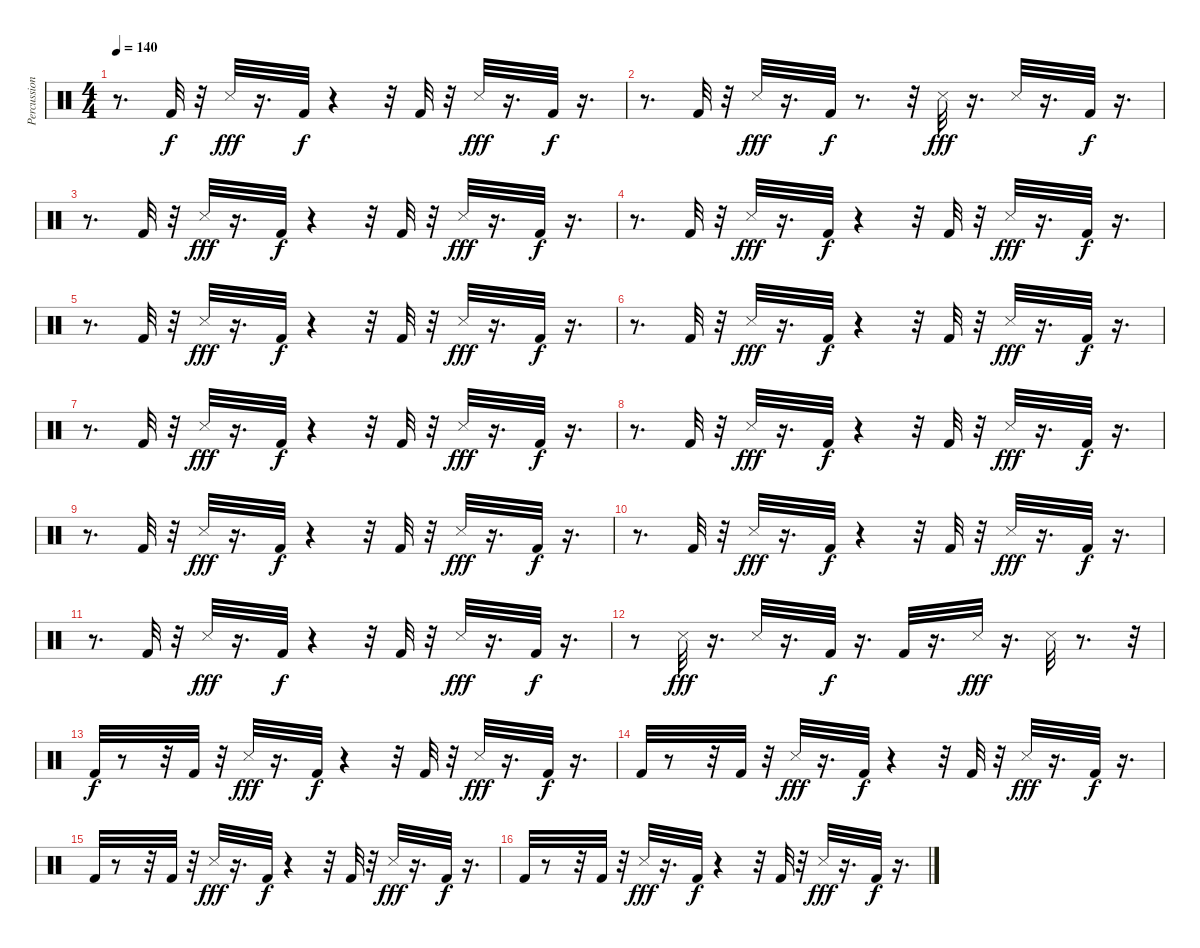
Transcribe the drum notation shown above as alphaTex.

\track ("Percussion" "Percussion") {instrument percussion}
\staff {score}
\articulation defaults
\ts (4 4)
\tempo 140
\clef neutral
\ks c
r.8{d dy f} "Kick (hit) 2".32 r.32 "Snare (side stick) 3".32{dy fff} r.16{d} "Kick (hit) 2".32{dy f} r.4 r.32 "Kick (hit) 2".32 r.32 "Snare (side stick) 3".32{dy fff} r.16{d} "Kick (hit) 2".32{dy f} r.16{d} |
r.8{d} "Kick (hit) 2".32 r.32 "Snare (side stick) 3".32{dy fff} r.16{d} "Kick (hit) 2".32{dy f} r.8{d} r.32 "Snare (side stick) 3".32{dy fff} r.16{d} "Snare (side stick) 3".32 r.16{d} "Kick (hit) 2".32{dy f} r.16{d} |
r.8{d} "Kick (hit) 2".32 r.32 "Snare (side stick) 3".32{dy fff} r.16{d} "Kick (hit) 2".32{dy f} r.4 r.32 "Kick (hit) 2".32 r.32 "Snare (side stick) 3".32{dy fff} r.16{d} "Kick (hit) 2".32{dy f} r.16{d} |
r.8{d} "Kick (hit) 2".32 r.32 "Snare (side stick) 3".32{dy fff} r.16{d} "Kick (hit) 2".32{dy f} r.4 r.32 "Kick (hit) 2".32 r.32 "Snare (side stick) 3".32{dy fff} r.16{d} "Kick (hit) 2".32{dy f} r.16{d} |
r.8{d} "Kick (hit) 2".32 r.32 "Snare (side stick) 3".32{dy fff} r.16{d} "Kick (hit) 2".32{dy f} r.4 r.32 "Kick (hit) 2".32 r.32 "Snare (side stick) 3".32{dy fff} r.16{d} "Kick (hit) 2".32{dy f} r.16{d} |
r.8{d} "Kick (hit) 2".32 r.32 "Snare (side stick) 3".32{dy fff} r.16{d} "Kick (hit) 2".32{dy f} r.4 r.32 "Kick (hit) 2".32 r.32 "Snare (side stick) 3".32{dy fff} r.16{d} "Kick (hit) 2".32{dy f} r.16{d} |
r.8{d} "Kick (hit) 2".32 r.32 "Snare (side stick) 3".32{dy fff} r.16{d} "Kick (hit) 2".32{dy f} r.4 r.32 "Kick (hit) 2".32 r.32 "Snare (side stick) 3".32{dy fff} r.16{d} "Kick (hit) 2".32{dy f} r.16{d} |
r.8{d} "Kick (hit) 2".32 r.32 "Snare (side stick) 3".32{dy fff} r.16{d} "Kick (hit) 2".32{dy f} r.4 r.32 "Kick (hit) 2".32 r.32 "Snare (side stick) 3".32{dy fff} r.16{d} "Kick (hit) 2".32{dy f} r.16{d} |
r.8{d} "Kick (hit) 2".32 r.32 "Snare (side stick) 3".32{dy fff} r.16{d} "Kick (hit) 2".32{dy f} r.4 r.32 "Kick (hit) 2".32 r.32 "Snare (side stick) 3".32{dy fff} r.16{d} "Kick (hit) 2".32{dy f} r.16{d} |
r.8{d} "Kick (hit) 2".32 r.32 "Snare (side stick) 3".32{dy fff} r.16{d} "Kick (hit) 2".32{dy f} r.4 r.32 "Kick (hit) 2".32 r.32 "Snare (side stick) 3".32{dy fff} r.16{d} "Kick (hit) 2".32{dy f} r.16{d} |
r.8{d} "Kick (hit) 2".32 r.32 "Snare (side stick) 3".32{dy fff} r.16{d} "Kick (hit) 2".32{dy f} r.4 r.32 "Kick (hit) 2".32 r.32 "Snare (side stick) 3".32{dy fff} r.16{d} "Kick (hit) 2".32{dy f} r.16{d} |
r.8 "Snare (side stick) 3".32{dy fff} r.16{d} "Snare (side stick) 3".32 r.16{d} "Kick (hit) 2".32{dy f} r.16{d} "Kick (hit) 2".32 r.16{d} "Snare (side stick) 3".32{dy fff} r.16{d} "Snare (side stick) 3".32 r.8{d} r.32 |
"Kick (hit) 2".32{dy f} r.8 r.32 "Kick (hit) 2".32 r.32 "Snare (side stick) 3".32{dy fff} r.16{d} "Kick (hit) 2".32{dy f} r.4 r.32 "Kick (hit) 2".32 r.32 "Snare (side stick) 3".32{dy fff} r.16{d} "Kick (hit) 2".32{dy f} r.16{d} |
"Kick (hit) 2".32 r.8 r.32 "Kick (hit) 2".32 r.32 "Snare (side stick) 3".32{dy fff} r.16{d} "Kick (hit) 2".32{dy f} r.4 r.32 "Kick (hit) 2".32 r.32 "Snare (side stick) 3".32{dy fff} r.16{d} "Kick (hit) 2".32{dy f} r.16{d} |
"Kick (hit) 2".32 r.8 r.32 "Kick (hit) 2".32 r.32 "Snare (side stick) 3".32{dy fff} r.16{d} "Kick (hit) 2".32{dy f} r.4 r.32 "Kick (hit) 2".32 r.32 "Snare (side stick) 3".32{dy fff} r.16{d} "Kick (hit) 2".32{dy f} r.16{d} |
"Kick (hit) 2".32 r.8 r.32 "Kick (hit) 2".32 r.32 "Snare (side stick) 3".32{dy fff} r.16{d} "Kick (hit) 2".32{dy f} r.4 r.32 "Kick (hit) 2".32 r.32 "Snare (side stick) 3".32{dy fff} r.16{d} "Kick (hit) 2".32{dy f} r.16{d}
